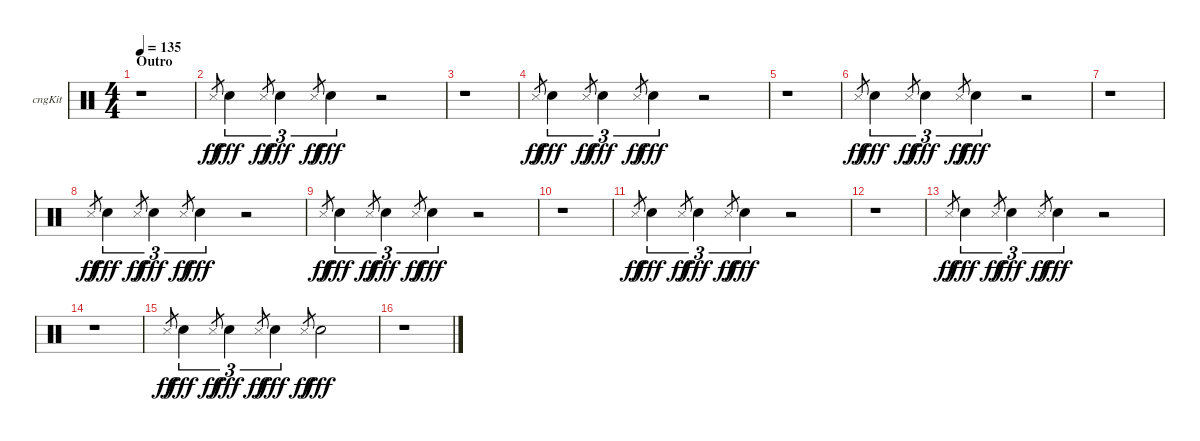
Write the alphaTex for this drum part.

\bracketExtendMode groupsimilarinstruments
\firstSystemTrackNameOrientation horizontal
\otherSystemsTrackNameOrientation horizontal
\track ("Congas" "cngKit") {instrument percussion}
\staff {score}
\articulation defaults
\ts (4 4)
\section ("" "Outro")
\tempo 135
\clef neutral
\ks c
r.1{dy mp} |
"Snare (side stick) 3".8{gr dy ff} "Snare (hit) 2".4{tu (3 2) dy fff} "Snare (side stick) 3".8{gr dy ff} "Snare (hit) 2".4{tu (3 2) dy fff} "Snare (side stick) 3".8{gr dy ff} "Snare (hit) 2".4{tu (3 2) dy fff} r.2 |
r.1 |
"Snare (side stick) 3".8{gr dy ff} "Snare (hit) 2".4{tu (3 2) dy fff} "Snare (side stick) 3".8{gr dy ff} "Snare (hit) 2".4{tu (3 2) dy fff} "Snare (side stick) 3".8{gr dy ff} "Snare (hit) 2".4{tu (3 2) dy fff} r.2 |
r.1 |
"Snare (side stick) 3".8{gr dy ff} "Snare (hit) 2".4{tu (3 2) dy fff} "Snare (side stick) 3".8{gr dy ff} "Snare (hit) 2".4{tu (3 2) dy fff} "Snare (side stick) 3".8{gr dy ff} "Snare (hit) 2".4{tu (3 2) dy fff} r.2 |
r.1 |
"Snare (side stick) 3".8{gr dy ff} "Snare (hit) 2".4{tu (3 2) dy fff} "Snare (side stick) 3".8{gr dy ff} "Snare (hit) 2".4{tu (3 2) dy fff} "Snare (side stick) 3".8{gr dy ff} "Snare (hit) 2".4{tu (3 2) dy fff} r.2 |
"Snare (side stick) 3".8{gr dy ff} "Snare (hit) 2".4{tu (3 2) dy fff} "Snare (side stick) 3".8{gr dy ff} "Snare (hit) 2".4{tu (3 2) dy fff} "Snare (side stick) 3".8{gr dy ff} "Snare (hit) 2".4{tu (3 2) dy fff} r.2 |
r.1 |
"Snare (side stick) 3".8{gr dy ff} "Snare (hit) 2".4{tu (3 2) dy fff} "Snare (side stick) 3".8{gr dy ff} "Snare (hit) 2".4{tu (3 2) dy fff} "Snare (side stick) 3".8{gr dy ff} "Snare (hit) 2".4{tu (3 2) dy fff} r.2 |
r.1 |
"Snare (side stick) 3".8{gr dy ff} "Snare (hit) 2".4{tu (3 2) dy fff} "Snare (side stick) 3".8{gr dy ff} "Snare (hit) 2".4{tu (3 2) dy fff} "Snare (side stick) 3".8{gr dy ff} "Snare (hit) 2".4{tu (3 2) dy fff} r.2 |
r.1 |
"Snare (side stick) 3".8{gr dy ff} "Snare (hit) 2".4{tu (3 2) dy fff} "Snare (side stick) 3".8{gr dy ff} "Snare (hit) 2".4{tu (3 2) dy fff} "Snare (side stick) 3".8{gr dy ff} "Snare (hit) 2".4{tu (3 2) dy fff} "Snare (side stick) 3".8{gr dy ff} "Snare (hit) 2".2{dy fff} |
r.1
